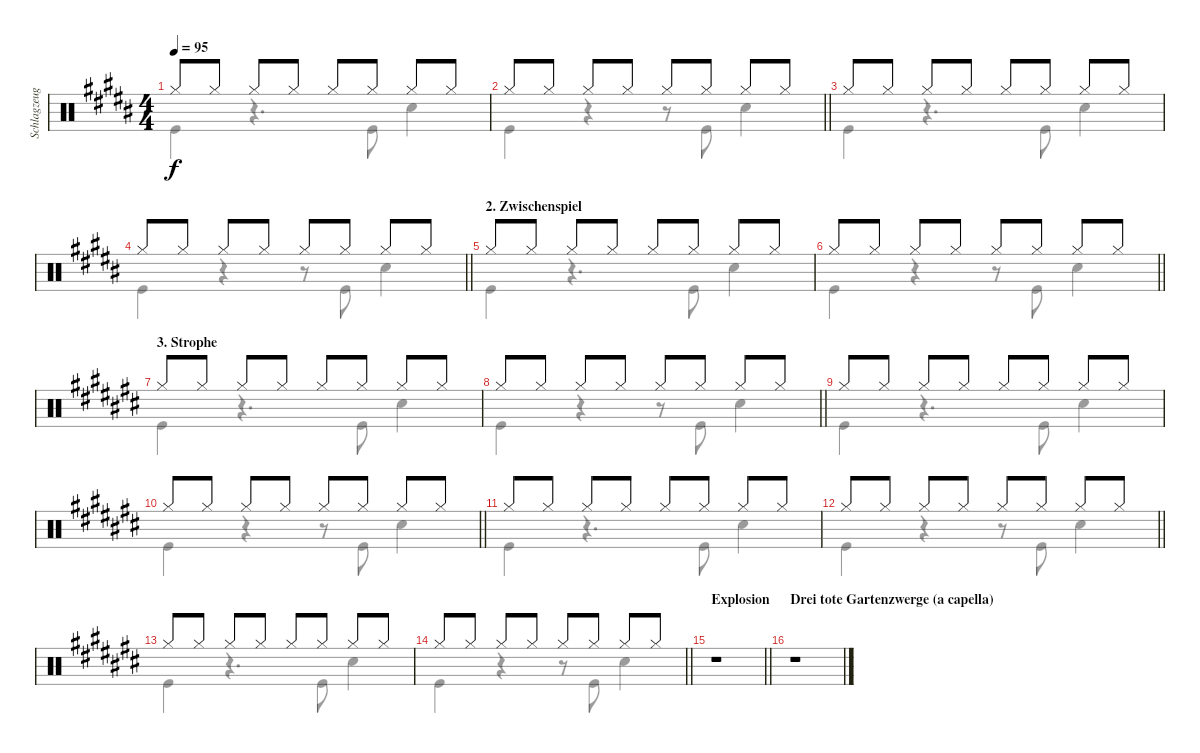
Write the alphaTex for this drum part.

\track ("Schlagzeug" "Schlagzeug") {instrument percussion}
\staff {score}
\articulation defaults
\voice
\ts (4 4)
\tempo 95
\clef neutral
\ks b "Hi-Hat (closed)".8{dy f} "Hi-Hat (closed)".8 "Hi-Hat (closed)".8 "Hi-Hat (closed)".8 "Hi-Hat (closed)".8 "Hi-Hat (closed)".8 "Hi-Hat (closed)".8 "Hi-Hat (closed)".8
|
\barLineRight lightlight "Hi-Hat (closed)".8 "Hi-Hat (closed)".8 "Hi-Hat (closed)".8 "Hi-Hat (closed)".8 "Hi-Hat (closed)".8 "Hi-Hat (closed)".8 "Hi-Hat (closed)".8 "Hi-Hat (closed)".8
|
"Hi-Hat (closed)".8 "Hi-Hat (closed)".8 "Hi-Hat (closed)".8 "Hi-Hat (closed)".8 "Hi-Hat (closed)".8 "Hi-Hat (closed)".8 "Hi-Hat (closed)".8 "Hi-Hat (closed)".8 |
\barLineRight lightlight "Hi-Hat (closed)".8 "Hi-Hat (closed)".8 "Hi-Hat (closed)".8 "Hi-Hat (closed)".8 "Hi-Hat (closed)".8 "Hi-Hat (closed)".8 "Hi-Hat (closed)".8 "Hi-Hat (closed)".8
|
\section ("" "2. Zwischenspiel")
"Hi-Hat (closed)".8 "Hi-Hat (closed)".8 "Hi-Hat (closed)".8 "Hi-Hat (closed)".8 "Hi-Hat (closed)".8 "Hi-Hat (closed)".8 "Hi-Hat (closed)".8 "Hi-Hat (closed)".8 |
\barLineRight lightlight "Hi-Hat (closed)".8 "Hi-Hat (closed)".8 "Hi-Hat (closed)".8 "Hi-Hat (closed)".8 "Hi-Hat (closed)".8 "Hi-Hat (closed)".8 "Hi-Hat (closed)".8 "Hi-Hat (closed)".8
|
\section ("" "3. Strophe")
\ks c# "Hi-Hat (closed)".8 "Hi-Hat (closed)".8 "Hi-Hat (closed)".8 "Hi-Hat (closed)".8 "Hi-Hat (closed)".8 "Hi-Hat (closed)".8 "Hi-Hat (closed)".8 "Hi-Hat (closed)".8
|
\barLineRight lightlight "Hi-Hat (closed)".8 "Hi-Hat (closed)".8 "Hi-Hat (closed)".8 "Hi-Hat (closed)".8 "Hi-Hat (closed)".8 "Hi-Hat (closed)".8 "Hi-Hat (closed)".8 "Hi-Hat (closed)".8
|
"Hi-Hat (closed)".8 "Hi-Hat (closed)".8 "Hi-Hat (closed)".8 "Hi-Hat (closed)".8 "Hi-Hat (closed)".8 "Hi-Hat (closed)".8 "Hi-Hat (closed)".8 "Hi-Hat (closed)".8 |
\barLineRight lightlight "Hi-Hat (closed)".8 "Hi-Hat (closed)".8 "Hi-Hat (closed)".8 "Hi-Hat (closed)".8 "Hi-Hat (closed)".8 "Hi-Hat (closed)".8 "Hi-Hat (closed)".8 "Hi-Hat (closed)".8
|
"Hi-Hat (closed)".8 "Hi-Hat (closed)".8 "Hi-Hat (closed)".8 "Hi-Hat (closed)".8 "Hi-Hat (closed)".8 "Hi-Hat (closed)".8 "Hi-Hat (closed)".8 "Hi-Hat (closed)".8 |
\barLineRight lightlight "Hi-Hat (closed)".8 "Hi-Hat (closed)".8 "Hi-Hat (closed)".8 "Hi-Hat (closed)".8 "Hi-Hat (closed)".8 "Hi-Hat (closed)".8 "Hi-Hat (closed)".8 "Hi-Hat (closed)".8
|
"Hi-Hat (closed)".8 "Hi-Hat (closed)".8 "Hi-Hat (closed)".8 "Hi-Hat (closed)".8 "Hi-Hat (closed)".8 "Hi-Hat (closed)".8 "Hi-Hat (closed)".8 "Hi-Hat (closed)".8 |
\barLineRight lightlight "Hi-Hat (closed)".8 "Hi-Hat (closed)".8 "Hi-Hat (closed)".8 "Hi-Hat (closed)".8 "Hi-Hat (closed)".8 "Hi-Hat (closed)".8 "Hi-Hat (closed)".8 "Hi-Hat (closed)".8
|
\section ("" "Explosion")
\barLineRight lightlight
r.1 |
\section ("" "Drei tote Gartenzwerge (a capella)")
r.1
\voice
\clef neutral
\ottava regular
\simile none
\ks b "Kick (hit)".4{dy f}
r.4{d} "Kick (hit)".8 "Snare (hit) 2".4 |
\barLineRight lightlight "Kick (hit)".4
r.4 r.8 "Kick (hit)".8 "Snare (hit) 2".4 |
"Kick (hit)".4 r.4{d} "Kick (hit)".8 "Snare (hit) 2".4 |
\barLineRight lightlight "Kick (hit)".4
r.4 r.8 "Kick (hit)".8 "Snare (hit) 2".4 |
"Kick (hit)".4 r.4{d} "Kick (hit)".8 "Snare (hit) 2".4 |
\barLineRight lightlight "Kick (hit)".4
r.4 r.8 "Kick (hit)".8 "Snare (hit) 2".4 |
\ks c# "Kick (hit)".4
r.4{d} "Kick (hit)".8 "Snare (hit) 2".4 |
\barLineRight lightlight "Kick (hit)".4
r.4 r.8 "Kick (hit)".8 "Snare (hit) 2".4 |
"Kick (hit)".4 r.4{d} "Kick (hit)".8 "Snare (hit) 2".4 |
\barLineRight lightlight "Kick (hit)".4
r.4 r.8 "Kick (hit)".8 "Snare (hit) 2".4 |
"Kick (hit)".4 r.4{d} "Kick (hit)".8 "Snare (hit) 2".4 |
\barLineRight lightlight "Kick (hit)".4
r.4 r.8 "Kick (hit)".8 "Snare (hit) 2".4 |
"Kick (hit)".4 r.4{d} "Kick (hit)".8 "Snare (hit) 2".4 |
\barLineRight lightlight "Kick (hit)".4
r.4 r.8 "Kick (hit)".8 "Snare (hit) 2".4 |
\barLineRight lightlight
|
